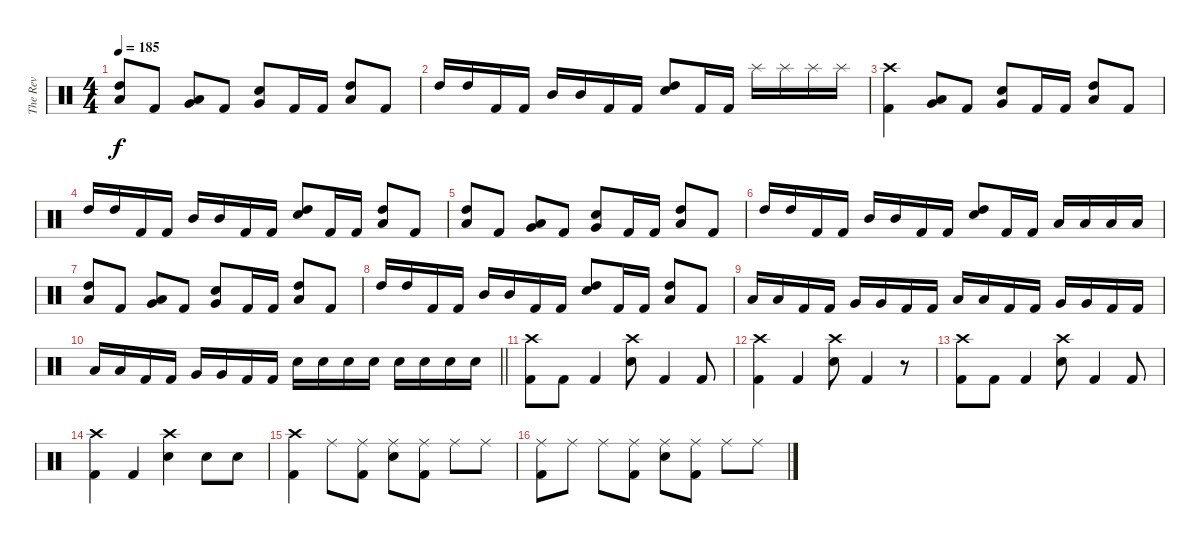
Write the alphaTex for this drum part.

\track ("The Rev" "The Rev") {instrument percussion}
\staff {score}
\articulation defaults
\ts (4 4)
\tempo 185
\clef neutral
\ks c
("High Tom (hit)" "Low Tom (hit)").8{dy f} "Kick (hit) 2".8 ("Low Tom (hit)" "Very Low Tom (hit)").8 "Kick (hit) 2".8 ("Very Low Tom (hit)" "Electric Snare (hit)").8 "Kick (hit) 2".16 "Kick (hit) 2".16 ("High Tom (hit)" "Low Tom (hit)").8 "Kick (hit) 2".8 |
"High Tom (hit)".16 "High Tom (hit)".16 "Kick (hit) 2".16 "Kick (hit) 2".16 "Mid Tom (hit)".16 "Mid Tom (hit)".16 "Kick (hit) 2".16 "Kick (hit) 2".16 ("High Tom (hit)" "Electric Snare (hit)").8 "Kick (hit) 2".16 "Kick (hit) 2".16 "Splash (hit)".16 "Splash (hit)".16 "Splash (hit)".16 "Splash (hit)".16 |
("Crash high (hit)" "Kick (hit) 2").4 ("Low Tom (hit)" "Very Low Tom (hit)").8 "Kick (hit) 2".8 ("Very Low Tom (hit)" "Electric Snare (hit)").8 "Kick (hit) 2".16 "Kick (hit) 2".16 ("High Tom (hit)" "Low Tom (hit)").8 "Kick (hit) 2".8 |
"High Tom (hit)".16 "High Tom (hit)".16 "Kick (hit) 2".16 "Kick (hit) 2".16 "Mid Tom (hit)".16 "Mid Tom (hit)".16 "Kick (hit) 2".16 "Kick (hit) 2".16 ("High Tom (hit)" "Electric Snare (hit)").8 "Kick (hit) 2".16 "Kick (hit) 2".16 ("High Tom (hit)" "Low Tom (hit)").8 "Kick (hit) 2".8 |
("High Tom (hit)" "Low Tom (hit)").8 "Kick (hit) 2".8 ("Low Tom (hit)" "Very Low Tom (hit)").8 "Kick (hit) 2".8 ("Very Low Tom (hit)" "Electric Snare (hit)").8 "Kick (hit) 2".16 "Kick (hit) 2".16 ("High Tom (hit)" "Low Tom (hit)").8 "Kick (hit) 2".8 |
"High Tom (hit)".16 "High Tom (hit)".16 "Kick (hit) 2".16 "Kick (hit) 2".16 "Mid Tom (hit)".16 "Mid Tom (hit)".16 "Kick (hit) 2".16 "Kick (hit) 2".16 ("High Tom (hit)" "Electric Snare (hit)").8 "Kick (hit) 2".16 "Kick (hit) 2".16 "Low Tom (hit)".16 "Low Tom (hit)".16 "Low Tom (hit)".16 "Low Tom (hit)".16 |
("High Tom (hit)" "Low Tom (hit)").8 "Kick (hit) 2".8 ("Low Tom (hit)" "Very Low Tom (hit)").8 "Kick (hit) 2".8 ("Very Low Tom (hit)" "Electric Snare (hit)").8 "Kick (hit) 2".16 "Kick (hit) 2".16 ("High Tom (hit)" "Low Tom (hit)").8 "Kick (hit) 2".8 |
"High Tom (hit)".16 "High Tom (hit)".16 "Kick (hit) 2".16 "Kick (hit) 2".16 "Mid Tom (hit)".16 "Mid Tom (hit)".16 "Kick (hit) 2".16 "Kick (hit) 2".16 ("High Tom (hit)" "Electric Snare (hit)").8 "Kick (hit) 2".16 "Kick (hit) 2".16 ("High Tom (hit)" "Low Tom (hit)").8 "Kick (hit) 2".8 |
"Low Tom (hit)".16 "Low Tom (hit)".16 "Kick (hit) 2".16 "Kick (hit) 2".16 "Very Low Tom (hit)".16 "Very Low Tom (hit)".16 "Kick (hit) 2".16 "Kick (hit) 2".16 "Low Tom (hit)".16 "Low Tom (hit)".16 "Kick (hit) 2".16 "Kick (hit) 2".16 "Very Low Tom (hit)".16 "Very Low Tom (hit)".16 "Kick (hit) 2".16 "Kick (hit) 2".16 |
\barLineRight lightlight "Low Tom (hit)".16 "Low Tom (hit)".16 "Kick (hit) 2".16 "Kick (hit) 2".16 "Very Low Tom (hit)".16 "Very Low Tom (hit)".16 "Kick (hit) 2".16 "Kick (hit) 2".16 "Electric Snare (hit)".16 "Electric Snare (hit)".16 "Electric Snare (hit)".16 "Electric Snare (hit)".16 "Electric Snare (hit)".16 "Electric Snare (hit)".16 "Electric Snare (hit)".16 "Electric Snare (hit)".16
|
("Crash high (hit)" "Kick (hit) 2").8 "Kick (hit) 2".8 "Kick (hit) 2".4 ("Crash high (hit)" "Electric Snare (hit)").8 "Kick (hit) 2".4 "Kick (hit) 2".8 |
("Crash high (hit)" "Kick (hit) 2").4 "Kick (hit) 2".4 ("Crash high (hit)" "Electric Snare (hit)").8 "Kick (hit) 2".4 r.8 |
("Crash high (hit)" "Kick (hit) 2").8 "Kick (hit) 2".8 "Kick (hit) 2".4 ("Crash high (hit)" "Electric Snare (hit)").8 "Kick (hit) 2".4 "Kick (hit) 2".8 |
("Crash high (hit)" "Kick (hit) 2").4 "Kick (hit) 2".4 ("Crash high (hit)" "Electric Snare (hit)").4 "Electric Snare (hit)".8 "Electric Snare (hit)".8 |
("Crash high (hit)" "Kick (hit) 2").4 "Ride (middle)".8 ("Ride (middle)" "Kick (hit) 2").8 ("Ride (middle)" "Electric Snare (hit)").8 ("Ride (middle)" "Kick (hit) 2").8 "Ride (middle)".8 "Ride (middle)".8 |
("Ride (middle)" "Kick (hit) 2").8 "Ride (middle)".8 "Ride (middle)".8 ("Ride (middle)" "Kick (hit) 2").8 ("Ride (middle)" "Electric Snare (hit)").8 ("Ride (middle)" "Kick (hit) 2").8 "Ride (middle)".8 "Ride (middle)".8
